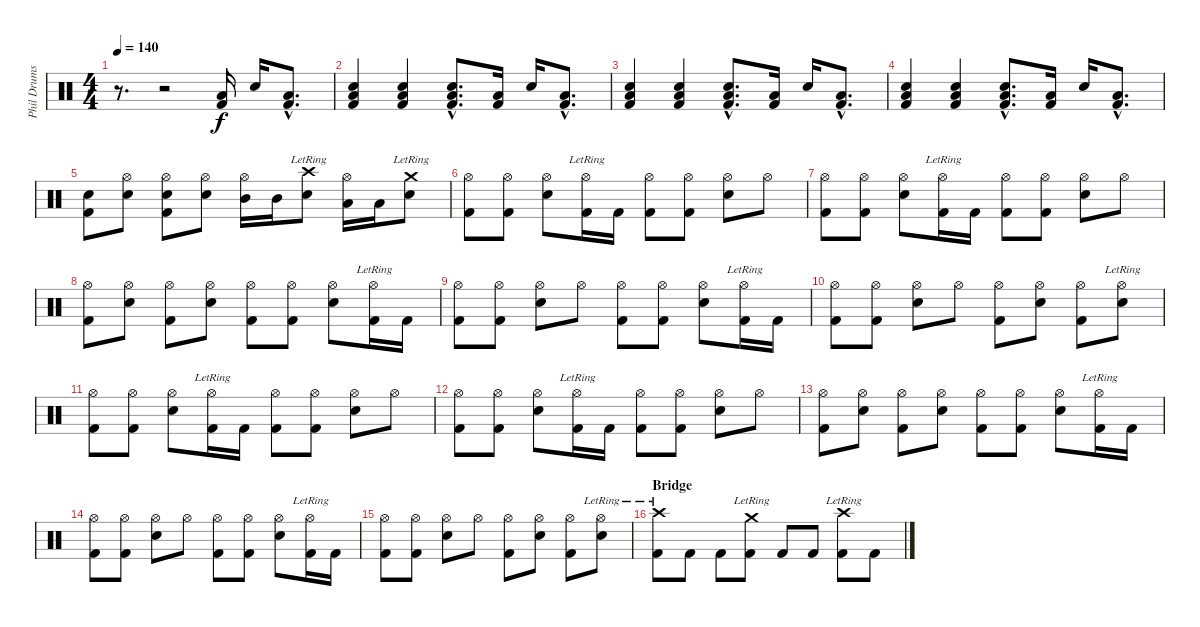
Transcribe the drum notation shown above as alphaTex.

\track ("Phil Drums" "Phil Drums") {instrument percussion}
\staff {score}
\articulation defaults
\ts (4 4)
\tempo 140
\clef neutral
\ks c
r.8{d dy f} r.2 ("Kick (hit) 2" "Low Floor Tom (hit)").16 "Snare (hit) 2".16 ("Kick (hit) 2"{hac} "Low Floor Tom (hit)"{hac}).8{d} |
("Kick (hit) 2" "Snare (hit) 2" "Low Floor Tom (hit)").4 ("Kick (hit) 2" "Snare (hit) 2" "Low Floor Tom (hit)").4 ("Kick (hit) 2"{hac} "Snare (hit) 2"{hac} "Low Floor Tom (hit)"{hac}).8{d} ("Kick (hit) 2" "Low Floor Tom (hit)").16 "Snare (hit) 2".16 ("Kick (hit) 2"{hac} "Low Floor Tom (hit)"{hac}).8{d} |
("Kick (hit) 2" "Snare (hit) 2" "Low Floor Tom (hit)").4 ("Kick (hit) 2" "Snare (hit) 2" "Low Floor Tom (hit)").4 ("Kick (hit) 2"{hac} "Snare (hit) 2"{hac} "Low Floor Tom (hit)"{hac}).8{d} ("Kick (hit) 2" "Low Floor Tom (hit)").16 "Snare (hit) 2".16 ("Kick (hit) 2"{hac} "Low Floor Tom (hit)"{hac}).8{d} |
("Kick (hit) 2" "Snare (hit) 2" "Low Floor Tom (hit)").4 ("Kick (hit) 2" "Snare (hit) 2" "Low Floor Tom (hit)").4 ("Kick (hit) 2"{hac} "Snare (hit) 2"{hac} "Low Floor Tom (hit)"{hac}).8{d} ("Kick (hit) 2" "Low Floor Tom (hit)").16 "Snare (hit) 2".16 ("Kick (hit) 2"{hac} "Low Floor Tom (hit)"{hac}).8{d} |
("Kick (hit) 2" "Snare (hit) 2").8 ("Snare (hit) 2" "Hi-Hat (open)").8 ("Kick (hit) 2" "Snare (hit) 2" "Hi-Hat (open)").8 ("Snare (hit) 2" "Hi-Hat (open)").8 ("Mid Tom (hit)" "Hi-Hat (open)").16 "Mid Tom (hit)".16 ("Snare (hit) 2" "Crash high (hit)"{lr}).8 ("Low Tom (hit)" "Hi-Hat (open)").16 "Low Tom (hit)".16 ("Snare (hit) 2" "Crash medium (hit)"{lr}).8 |
("Kick (hit) 2" "Hi-Hat (open)").8 ("Kick (hit) 2" "Hi-Hat (open)").8 ("Snare (hit) 2" "Hi-Hat (open)").8 ("Kick (hit) 2" "Hi-Hat (open)"{lr}).16 "Kick (hit) 2".16 ("Kick (hit) 2" "Hi-Hat (open)").8 ("Kick (hit) 2" "Hi-Hat (open)").8 ("Snare (hit) 2" "Hi-Hat (open)").8 "Hi-Hat (open)".8 |
("Kick (hit) 2" "Hi-Hat (open)").8 ("Kick (hit) 2" "Hi-Hat (open)").8 ("Snare (hit) 2" "Hi-Hat (open)").8 ("Kick (hit) 2" "Hi-Hat (open)"{lr}).16 "Kick (hit) 2".16 ("Kick (hit) 2" "Hi-Hat (open)").8 ("Kick (hit) 2" "Hi-Hat (open)").8 ("Snare (hit) 2" "Hi-Hat (open)").8 "Hi-Hat (open)".8 |
("Kick (hit) 2" "Hi-Hat (open)").8 ("Snare (hit) 2" "Hi-Hat (open)").8 ("Kick (hit) 2" "Hi-Hat (open)").8 ("Snare (hit) 2" "Hi-Hat (open)").8 ("Kick (hit) 2" "Hi-Hat (open)").8 ("Kick (hit) 2" "Hi-Hat (open)").8 ("Snare (hit) 2" "Hi-Hat (open)").8 ("Kick (hit) 2" "Hi-Hat (open)"{lr}).16 "Kick (hit) 2".16 |
("Kick (hit) 2" "Hi-Hat (open)").8 ("Kick (hit) 2" "Hi-Hat (open)").8 ("Snare (hit) 2" "Hi-Hat (open)").8 "Hi-Hat (open)".8 ("Kick (hit) 2" "Hi-Hat (open)").8 ("Kick (hit) 2" "Hi-Hat (open)").8 ("Snare (hit) 2" "Hi-Hat (open)").8 ("Kick (hit) 2" "Hi-Hat (open)"{lr}).16 "Kick (hit) 2".16 |
("Kick (hit) 2" "Hi-Hat (open)").8 ("Kick (hit) 2" "Hi-Hat (open)").8 ("Snare (hit) 2" "Hi-Hat (open)").8 "Hi-Hat (open)".8 ("Kick (hit) 2" "Hi-Hat (open)").8 ("Snare (hit) 2" "Hi-Hat (open)").8 ("Kick (hit) 2" "Hi-Hat (open)").8 ("Snare (hit) 2" "Hi-Hat (open)"{lr}).8 |
("Kick (hit) 2" "Hi-Hat (open)").8 ("Kick (hit) 2" "Hi-Hat (open)").8 ("Snare (hit) 2" "Hi-Hat (open)").8 ("Kick (hit) 2" "Hi-Hat (open)"{lr}).16 "Kick (hit) 2".16 ("Kick (hit) 2" "Hi-Hat (open)").8 ("Kick (hit) 2" "Hi-Hat (open)").8 ("Snare (hit) 2" "Hi-Hat (open)").8 "Hi-Hat (open)".8 |
("Kick (hit) 2" "Hi-Hat (open)").8 ("Kick (hit) 2" "Hi-Hat (open)").8 ("Snare (hit) 2" "Hi-Hat (open)").8 ("Kick (hit) 2" "Hi-Hat (open)"{lr}).16 "Kick (hit) 2".16 ("Kick (hit) 2" "Hi-Hat (open)").8 ("Kick (hit) 2" "Hi-Hat (open)").8 ("Snare (hit) 2" "Hi-Hat (open)").8 "Hi-Hat (open)".8 |
("Kick (hit) 2" "Hi-Hat (open)").8 ("Snare (hit) 2" "Hi-Hat (open)").8 ("Kick (hit) 2" "Hi-Hat (open)").8 ("Snare (hit) 2" "Hi-Hat (open)").8 ("Kick (hit) 2" "Hi-Hat (open)").8 ("Kick (hit) 2" "Hi-Hat (open)").8 ("Snare (hit) 2" "Hi-Hat (open)").8 ("Kick (hit) 2" "Hi-Hat (open)"{lr}).16 "Kick (hit) 2".16 |
("Kick (hit) 2" "Hi-Hat (open)").8 ("Kick (hit) 2" "Hi-Hat (open)").8 ("Snare (hit) 2" "Hi-Hat (open)").8 "Hi-Hat (open)".8 ("Kick (hit) 2" "Hi-Hat (open)").8 ("Kick (hit) 2" "Hi-Hat (open)").8 ("Snare (hit) 2" "Hi-Hat (open)").8 ("Kick (hit) 2" "Hi-Hat (open)"{lr}).16 "Kick (hit) 2".16 |
("Kick (hit) 2" "Hi-Hat (open)").8 ("Kick (hit) 2" "Hi-Hat (open)").8 ("Snare (hit) 2" "Hi-Hat (open)").8 "Hi-Hat (open)".8 ("Kick (hit) 2" "Hi-Hat (open)").8 ("Snare (hit) 2" "Hi-Hat (open)").8 ("Kick (hit) 2" "Hi-Hat (open)").8 ("Snare (hit) 2" "Hi-Hat (open)"{lr}).8 |
\section ("" "Bridge")
("Kick (hit) 2" "Crash high (hit)"{lr}).8 "Kick (hit) 2".8 "Kick (hit) 2".8 ("Kick (hit) 2" "Crash medium (hit)"{lr}).8 "Kick (hit) 2".8 "Kick (hit) 2".8 ("Kick (hit) 2" "Crash high (hit)"{lr}).8 "Kick (hit) 2".8
